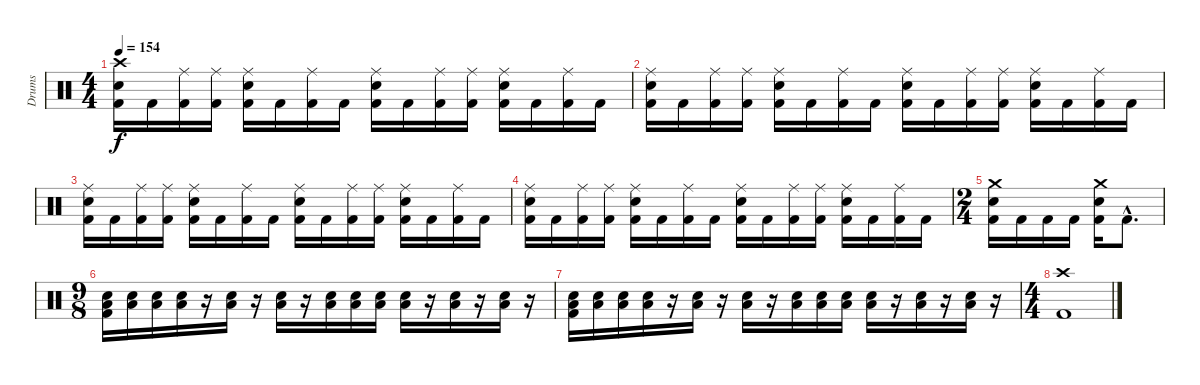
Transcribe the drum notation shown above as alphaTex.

\track ("Drums" "Drums") {instrument percussion}
\staff {score}
\articulation defaults
\ts (4 4)
\tempo 154
\clef neutral
\ks c
("Crash high (hit)" "Snare (hit) 2" "Kick (hit) 2").16{dy f} "Kick (hit) 2".16 ("Ride (middle)" "Kick (hit) 2").16 ("Ride (middle)" "Kick (hit) 2").16 ("Ride (middle)" "Snare (hit) 2" "Kick (hit) 2").16 "Kick (hit) 2".16 ("Ride (middle)" "Kick (hit) 2").16 "Kick (hit) 2".16 ("Ride (middle)" "Snare (hit) 2" "Kick (hit) 2").16 "Kick (hit) 2".16 ("Ride (middle)" "Kick (hit) 2").16 ("Ride (middle)" "Kick (hit) 2").16 ("Ride (middle)" "Snare (hit) 2" "Kick (hit) 2").16 "Kick (hit) 2".16 ("Ride (middle)" "Kick (hit) 2").16 "Kick (hit) 2".16 |
("Ride (middle)" "Snare (hit) 2" "Kick (hit) 2").16 "Kick (hit) 2".16 ("Ride (middle)" "Kick (hit) 2").16 ("Ride (middle)" "Kick (hit) 2").16 ("Ride (middle)" "Snare (hit) 2" "Kick (hit) 2").16 "Kick (hit) 2".16 ("Ride (middle)" "Kick (hit) 2").16 "Kick (hit) 2".16 ("Ride (middle)" "Snare (hit) 2" "Kick (hit) 2").16 "Kick (hit) 2".16 ("Ride (middle)" "Kick (hit) 2").16 ("Ride (middle)" "Kick (hit) 2").16 ("Ride (middle)" "Snare (hit) 2" "Kick (hit) 2").16 "Kick (hit) 2".16 ("Ride (middle)" "Kick (hit) 2").16 "Kick (hit) 2".16 |
("Ride (middle)" "Snare (hit) 2" "Kick (hit) 2").16 "Kick (hit) 2".16 ("Ride (middle)" "Kick (hit) 2").16 ("Ride (middle)" "Kick (hit) 2").16 ("Ride (middle)" "Snare (hit) 2" "Kick (hit) 2").16 "Kick (hit) 2".16 ("Ride (middle)" "Kick (hit) 2").16 "Kick (hit) 2".16 ("Ride (middle)" "Snare (hit) 2" "Kick (hit) 2").16 "Kick (hit) 2".16 ("Ride (middle)" "Kick (hit) 2").16 ("Ride (middle)" "Kick (hit) 2").16 ("Ride (middle)" "Snare (hit) 2" "Kick (hit) 2").16 "Kick (hit) 2".16 ("Ride (middle)" "Kick (hit) 2").16 "Kick (hit) 2".16 |
("Ride (middle)" "Snare (hit) 2" "Kick (hit) 2").16 "Kick (hit) 2".16 ("Ride (middle)" "Kick (hit) 2").16 ("Ride (middle)" "Kick (hit) 2").16 ("Ride (middle)" "Snare (hit) 2" "Kick (hit) 2").16 "Kick (hit) 2".16 ("Ride (middle)" "Kick (hit) 2").16 "Kick (hit) 2".16 ("Ride (middle)" "Snare (hit) 2" "Kick (hit) 2").16 "Kick (hit) 2".16 ("Ride (middle)" "Kick (hit) 2").16 ("Ride (middle)" "Kick (hit) 2").16 ("Ride (middle)" "Snare (hit) 2" "Kick (hit) 2").16 "Kick (hit) 2".16 ("Ride (middle)" "Kick (hit) 2").16 "Kick (hit) 2".16 |
\ts (2 4)
("Crash medium (hit)" "Snare (hit) 2" "Kick (hit) 2").16 "Kick (hit) 2".16 "Kick (hit) 2".16 "Kick (hit) 2".16 ("Crash medium (hit)" "Snare (hit) 2" "Kick (hit) 2").16 "Kick (hit) 2"{hac}.8{d} |
\ts (9 8)
("Low Floor Tom (hit)" "Snare (hit) 2" "Kick (hit) 2").16 ("Low Floor Tom (hit)" "Snare (hit) 2").16 ("Low Floor Tom (hit)" "Snare (hit) 2").16 ("Low Floor Tom (hit)" "Snare (hit) 2").16 r.16 ("Low Floor Tom (hit)" "Snare (hit) 2").16 r.16 ("Low Floor Tom (hit)" "Snare (hit) 2").16 r.16 ("Low Floor Tom (hit)" "Snare (hit) 2").16 ("Low Floor Tom (hit)" "Snare (hit) 2").16 ("Low Floor Tom (hit)" "Snare (hit) 2").16 ("Low Floor Tom (hit)" "Snare (hit) 2").16 r.16 ("Low Floor Tom (hit)" "Snare (hit) 2").16 r.16 ("Low Floor Tom (hit)" "Snare (hit) 2").16 r.16 |
("Low Floor Tom (hit)" "Snare (hit) 2" "Kick (hit) 2").16 ("Low Floor Tom (hit)" "Snare (hit) 2").16 ("Low Floor Tom (hit)" "Snare (hit) 2").16 ("Low Floor Tom (hit)" "Snare (hit) 2").16 r.16 ("Low Floor Tom (hit)" "Snare (hit) 2").16 r.16 ("Low Floor Tom (hit)" "Snare (hit) 2").16 r.16 ("Low Floor Tom (hit)" "Snare (hit) 2").16 ("Low Floor Tom (hit)" "Snare (hit) 2").16 ("Low Floor Tom (hit)" "Snare (hit) 2").16 ("Low Floor Tom (hit)" "Snare (hit) 2").16 r.16 ("Low Floor Tom (hit)" "Snare (hit) 2").16 r.16 ("Low Floor Tom (hit)" "Snare (hit) 2").16 r.16 |
\ts (4 4)
("Crash high (hit)" "Kick (hit) 2").1
